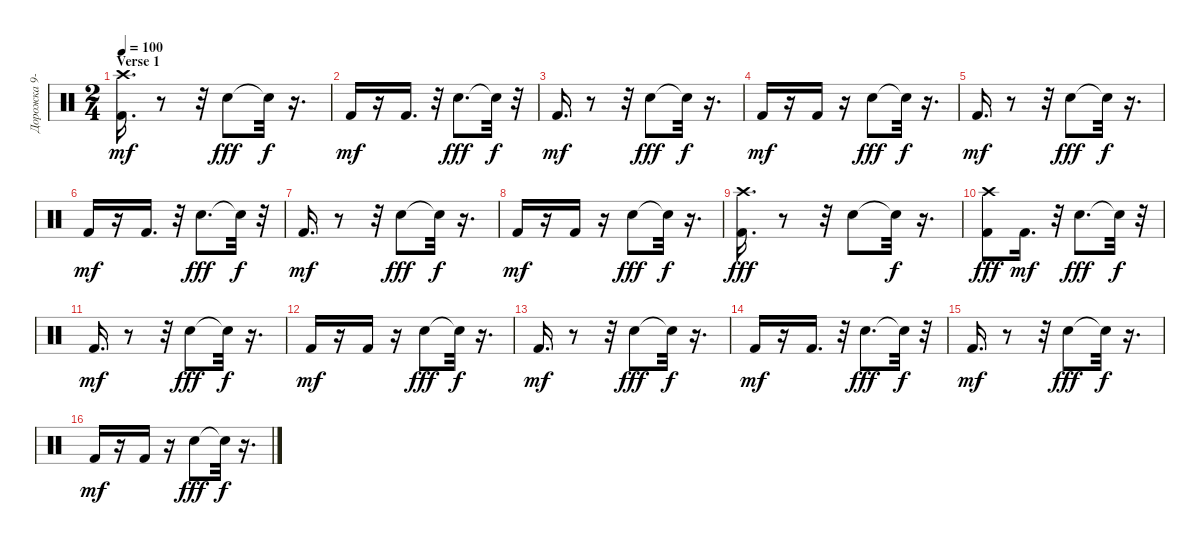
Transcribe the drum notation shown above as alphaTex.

\track ("Дорожка 9-10" "Дорожка 9-") {instrument percussion}
\staff {score}
\articulation defaults
\ts (2 4)
\section ("" "Verse 1")
\tempo 100
\clef neutral
\ks c
("Kick (hit) 2" "Crash high (hit)").16{d dy mf} r.8 r.32 "Snare (hit) 2".8{dy fff} "Snare (hit)"{t}.32{dy f} r.16{d} |
"Kick (hit) 2".16{dy mf} r.16 "Kick (hit) 2".16{d} r.32 "Snare (hit) 2".8{d dy fff} "Snare (hit)"{t}.32{dy f} r.32 |
"Kick (hit) 2".16{d dy mf} r.8 r.32 "Snare (hit) 2".8{dy fff} "Snare (hit)"{t}.32{dy f} r.16{d} |
"Kick (hit) 2".16{dy mf} r.16 "Kick (hit) 2".16 r.16 "Snare (hit) 2".8{dy fff} "Snare (hit)"{t}.32{dy f} r.16{d} |
"Kick (hit) 2".16{d dy mf} r.8 r.32 "Snare (hit) 2".8{dy fff} "Snare (hit)"{t}.32{dy f} r.16{d} |
"Kick (hit) 2".16{dy mf} r.16 "Kick (hit) 2".16{d} r.32 "Snare (hit) 2".8{d dy fff} "Snare (hit)"{t}.32{dy f} r.32 |
"Kick (hit) 2".16{d dy mf} r.8 r.32 "Snare (hit) 2".8{dy fff} "Snare (hit)"{t}.32{dy f} r.16{d} |
"Kick (hit) 2".16{dy mf} r.16 "Kick (hit) 2".16 r.16 "Snare (hit) 2".8{dy fff} "Snare (hit)"{t}.32{dy f} r.16{d} |
("Kick (hit) 2" "Crash high (hit)").16{d dy fff} r.8 r.32 "Snare (hit) 2".8 "Snare (hit)"{t}.32{dy f} r.16{d} |
("Kick (hit) 2" "Crash high (hit)").8{dy fff} "Kick (hit) 2".16{d dy mf} r.32 "Snare (hit) 2".8{d dy fff} "Snare (hit)"{t}.32{dy f} r.32 |
"Kick (hit) 2".16{d dy mf} r.8 r.32 "Snare (hit) 2".8{dy fff} "Snare (hit)"{t}.32{dy f} r.16{d} |
"Kick (hit) 2".16{dy mf} r.16 "Kick (hit) 2".16 r.16 "Snare (hit) 2".8{dy fff} "Snare (hit)"{t}.32{dy f} r.16{d} |
"Kick (hit) 2".16{d dy mf} r.8 r.32 "Snare (hit) 2".8{dy fff} "Snare (hit)"{t}.32{dy f} r.16{d} |
"Kick (hit) 2".16{dy mf} r.16 "Kick (hit) 2".16{d} r.32 "Snare (hit) 2".8{d dy fff} "Snare (hit)"{t}.32{dy f} r.32 |
"Kick (hit) 2".16{d dy mf} r.8 r.32 "Snare (hit) 2".8{dy fff} "Snare (hit)"{t}.32{dy f} r.16{d} |
"Kick (hit) 2".16{dy mf} r.16 "Kick (hit) 2".16 r.16 "Snare (hit) 2".8{dy fff} "Snare (hit)"{t}.32{dy f} r.16{d}
